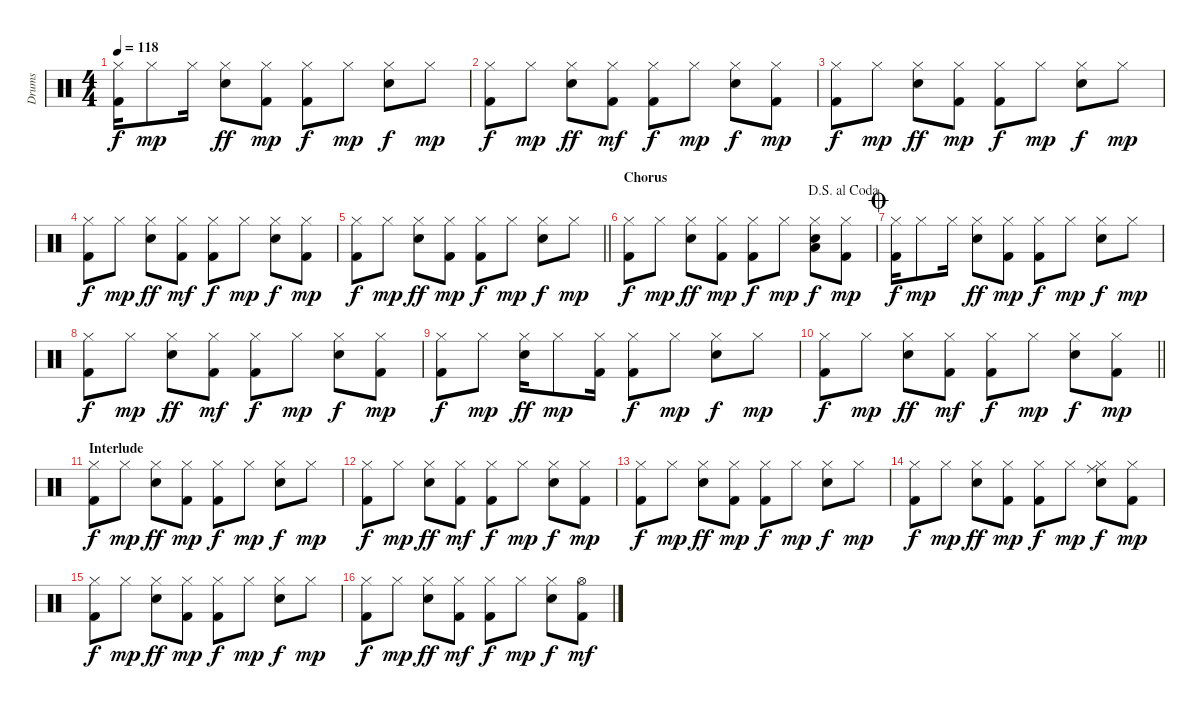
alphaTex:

\track ("Drums" "Drums") {instrument percussion}
\staff {score}
\articulation defaults
\ts (4 4)
\tempo 118
\clef neutral
\ks c
("Kick (hit) 2" "Hi-Hat (closed)").16{dy f} "Hi-Hat (closed)".8{dy mp} "Hi-Hat (closed)".16 ("Snare (hit) 2" "Hi-Hat (closed)").8{dy ff} ("Kick (hit) 2" "Hi-Hat (closed)").8{dy mp} ("Kick (hit) 2" "Hi-Hat (closed)").8{dy f} "Hi-Hat (closed)".8{dy mp} ("Snare (hit) 2" "Hi-Hat (closed)").8{dy f} "Hi-Hat (closed)".8{dy mp} |
("Kick (hit) 2" "Hi-Hat (closed)").8{dy f} "Hi-Hat (closed)".8{dy mp} ("Snare (hit) 2" "Hi-Hat (closed)").8{dy ff} ("Kick (hit) 2" "Hi-Hat (closed)").8{dy mf} ("Kick (hit) 2" "Hi-Hat (closed)").8{dy f} "Hi-Hat (closed)".8{dy mp} ("Snare (hit) 2" "Hi-Hat (closed)").8{dy f} ("Kick (hit) 2" "Hi-Hat (closed)").8{dy mp} |
("Kick (hit) 2" "Hi-Hat (closed)").8{dy f} "Hi-Hat (closed)".8{dy mp} ("Snare (hit) 2" "Hi-Hat (closed)").8{dy ff} ("Kick (hit) 2" "Hi-Hat (closed)").8{dy mp} ("Kick (hit) 2" "Hi-Hat (closed)").8{dy f} "Hi-Hat (closed)".8{dy mp} ("Snare (hit) 2" "Hi-Hat (closed)").8{dy f} "Hi-Hat (closed)".8{dy mp} |
("Kick (hit) 2" "Hi-Hat (closed)").8{dy f} "Hi-Hat (closed)".8{dy mp} ("Snare (hit) 2" "Hi-Hat (closed)").8{dy ff} ("Kick (hit) 2" "Hi-Hat (closed)").8{dy mf} ("Kick (hit) 2" "Hi-Hat (closed)").8{dy f} "Hi-Hat (closed)".8{dy mp} ("Snare (hit) 2" "Hi-Hat (closed)").8{dy f} ("Kick (hit) 2" "Hi-Hat (closed)").8{dy mp} |
\barLineRight lightlight
("Kick (hit) 2" "Hi-Hat (closed)").8{dy f} "Hi-Hat (closed)".8{dy mp} ("Snare (hit) 2" "Hi-Hat (closed)").8{dy ff} ("Kick (hit) 2" "Hi-Hat (closed)").8{dy mp} ("Kick (hit) 2" "Hi-Hat (closed)").8{dy f} "Hi-Hat (closed)".8{dy mp} ("Snare (hit) 2" "Hi-Hat (closed)").8{dy f} "Hi-Hat (closed)".8{dy mp} |
\section ("" "Chorus")
\jump dalsegnoalcoda
("Kick (hit) 2" "Hi-Hat (closed)").8{dy f} "Hi-Hat (closed)".8{dy mp} ("Snare (hit) 2" "Hi-Hat (closed)").8{dy ff} ("Kick (hit) 2" "Hi-Hat (closed)").8{dy mp} ("Kick (hit) 2" "Hi-Hat (closed)").8{dy f} "Hi-Hat (closed)".8{dy mp} ("Snare (hit) 2" "Hi-Hat (closed)" "Low Floor Tom (hit)").8{dy f} ("Kick (hit) 2" "Hi-Hat (closed)").8{dy mp} |
\jump coda
("Kick (hit) 2" "Hi-Hat (closed)").16{dy f} "Hi-Hat (closed)".8{dy mp} "Hi-Hat (closed)".16 ("Snare (hit) 2" "Hi-Hat (closed)").8{dy ff} ("Kick (hit) 2" "Hi-Hat (closed)").8{dy mp} ("Kick (hit) 2" "Hi-Hat (closed)").8{dy f} "Hi-Hat (closed)".8{dy mp} ("Snare (hit) 2" "Hi-Hat (closed)").8{dy f} "Hi-Hat (closed)".8{dy mp} |
("Kick (hit) 2" "Hi-Hat (closed)").8{dy f} "Hi-Hat (closed)".8{dy mp} ("Snare (hit) 2" "Hi-Hat (closed)").8{dy ff} ("Kick (hit) 2" "Hi-Hat (closed)").8{dy mf} ("Kick (hit) 2" "Hi-Hat (closed)").8{dy f} "Hi-Hat (closed)".8{dy mp} ("Snare (hit) 2" "Hi-Hat (closed)").8{dy f} ("Kick (hit) 2" "Hi-Hat (closed)").8{dy mp} |
("Kick (hit) 2" "Hi-Hat (closed)").8{dy f} "Hi-Hat (closed)".8{dy mp} ("Snare (hit) 2" "Hi-Hat (closed)").16{dy ff} "Hi-Hat (closed)".8{dy mp} ("Kick (hit) 2" "Hi-Hat (closed)").16 ("Kick (hit) 2" "Hi-Hat (closed)").8{dy f} "Hi-Hat (closed)".8{dy mp} ("Snare (hit) 2" "Hi-Hat (closed)").8{dy f} "Hi-Hat (closed)".8{dy mp} |
\barLineRight lightlight
("Kick (hit) 2" "Hi-Hat (closed)").8{dy f} "Hi-Hat (closed)".8{dy mp} ("Snare (hit) 2" "Hi-Hat (closed)").8{dy ff} ("Kick (hit) 2" "Hi-Hat (closed)").8{dy mf} ("Kick (hit) 2" "Hi-Hat (closed)").8{dy f} "Hi-Hat (closed)".8{dy mp} ("Snare (hit) 2" "Hi-Hat (closed)").8{dy f} ("Kick (hit) 2" "Hi-Hat (closed)").8{dy mp} |
\section ("" "Interlude")
("Kick (hit) 2" "Hi-Hat (closed)").8{dy f} "Hi-Hat (closed)".8{dy mp} ("Snare (hit) 2" "Hi-Hat (closed)").8{dy ff} ("Kick (hit) 2" "Hi-Hat (closed)").8{dy mp} ("Kick (hit) 2" "Hi-Hat (closed)").8{dy f} "Hi-Hat (closed)".8{dy mp} ("Snare (hit) 2" "Hi-Hat (closed)").8{dy f} "Hi-Hat (closed)".8{dy mp} |
("Kick (hit) 2" "Hi-Hat (closed)").8{dy f} "Hi-Hat (closed)".8{dy mp} ("Snare (hit) 2" "Hi-Hat (closed)").8{dy ff} ("Kick (hit) 2" "Hi-Hat (closed)").8{dy mf} ("Kick (hit) 2" "Hi-Hat (closed)").8{dy f} "Hi-Hat (closed)".8{dy mp} ("Snare (hit) 2" "Hi-Hat (closed)").8{dy f} ("Kick (hit) 2" "Hi-Hat (closed)").8{dy mp} |
("Kick (hit) 2" "Hi-Hat (closed)").8{dy f} "Hi-Hat (closed)".8{dy mp} ("Snare (hit) 2" "Hi-Hat (closed)").8{dy ff} ("Kick (hit) 2" "Hi-Hat (closed)").8{dy mp} ("Kick (hit) 2" "Hi-Hat (closed)").8{dy f} "Hi-Hat (closed)".8{dy mp} ("Snare (hit) 2" "Hi-Hat (closed)").8{dy f} "Hi-Hat (closed)".8{dy mp} |
("Kick (hit) 2" "Hi-Hat (closed)").8{dy f} "Hi-Hat (closed)".8{dy mp} ("Snare (hit) 2" "Hi-Hat (closed)").8{dy ff} ("Kick (hit) 2" "Hi-Hat (closed)").8{dy mp} ("Kick (hit) 2" "Hi-Hat (closed)").8{dy f} "Hi-Hat (closed)".8{dy mp} ("Snare (hit) 2" "Hi-Hat (closed)" "Ride (middle)").8{dy f} ("Kick (hit) 2" "Hi-Hat (closed)").8{dy mp} |
("Kick (hit) 2" "Hi-Hat (closed)").8{dy f} "Hi-Hat (closed)".8{dy mp} ("Snare (hit) 2" "Hi-Hat (closed)").8{dy ff} ("Kick (hit) 2" "Hi-Hat (closed)").8{dy mp} ("Kick (hit) 2" "Hi-Hat (closed)").8{dy f} "Hi-Hat (closed)".8{dy mp} ("Snare (hit) 2" "Hi-Hat (closed)").8{dy f} "Hi-Hat (closed)".8{dy mp} |
("Kick (hit) 2" "Hi-Hat (closed)").8{dy f} "Hi-Hat (closed)".8{dy mp} ("Snare (hit) 2" "Hi-Hat (closed)").8{dy ff} ("Kick (hit) 2" "Hi-Hat (closed)").8{dy mf} ("Kick (hit) 2" "Hi-Hat (closed)").8{dy f} "Hi-Hat (closed)".8{dy mp} ("Snare (hit) 2" "Hi-Hat (closed)").8{dy f} ("Kick (hit) 2" "Hi-Hat (open)").8{dy mf}
